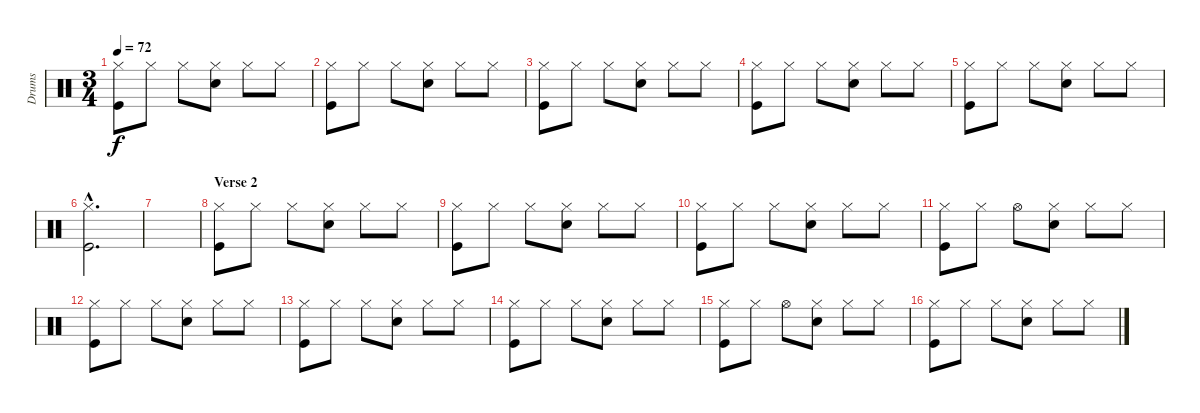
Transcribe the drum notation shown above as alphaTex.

\track ("Drums" "Drums") {instrument percussion}
\staff {score}
\articulation defaults
\ts (3 4)
\tempo 72
\clef neutral
\ks c
("Hi-Hat (closed)" "Kick (hit)").8{dy f} "Hi-Hat (closed)".8 "Hi-Hat (closed)".8 ("Hi-Hat (closed)" "Snare (hit) 2").8 "Hi-Hat (closed)".8 "Hi-Hat (closed)".8 |
("Hi-Hat (closed)" "Kick (hit)").8 "Hi-Hat (closed)".8 "Hi-Hat (closed)".8 ("Hi-Hat (closed)" "Snare (hit) 2").8 "Hi-Hat (closed)".8 "Hi-Hat (closed)".8 |
("Hi-Hat (closed)" "Kick (hit)").8 "Hi-Hat (closed)".8 "Hi-Hat (closed)".8 ("Hi-Hat (closed)" "Snare (hit) 2").8 "Hi-Hat (closed)".8 "Hi-Hat (closed)".8 |
("Hi-Hat (closed)" "Kick (hit)").8 "Hi-Hat (closed)".8 "Hi-Hat (closed)".8 ("Hi-Hat (closed)" "Snare (hit) 2").8 "Hi-Hat (closed)".8 "Hi-Hat (closed)".8 |
("Hi-Hat (closed)" "Kick (hit)").8 "Hi-Hat (closed)".8 "Hi-Hat (closed)".8 ("Hi-Hat (closed)" "Snare (hit) 2").8 "Hi-Hat (closed)".8 "Hi-Hat (closed)".8 |
("Hi-Hat (closed)"{hac} "Kick (hit)"{hac}).2{d} |
|
\section ("" "Verse 2")
("Hi-Hat (closed)" "Kick (hit)").8 "Hi-Hat (closed)".8 "Hi-Hat (closed)".8 ("Hi-Hat (closed)" "Snare (hit) 2").8 "Hi-Hat (closed)".8 "Hi-Hat (closed)".8 |
("Hi-Hat (closed)" "Kick (hit)").8 "Hi-Hat (closed)".8 "Hi-Hat (closed)".8 ("Hi-Hat (closed)" "Snare (hit) 2").8 "Hi-Hat (closed)".8 "Hi-Hat (closed)".8 |
("Hi-Hat (closed)" "Kick (hit)").8 "Hi-Hat (closed)".8 "Hi-Hat (closed)".8 ("Hi-Hat (closed)" "Snare (hit) 2").8 "Hi-Hat (closed)".8 "Hi-Hat (closed)".8 |
("Hi-Hat (closed)" "Kick (hit)").8 "Hi-Hat (closed)".8 "Hi-Hat (open)".8 ("Hi-Hat (closed)" "Snare (hit) 2").8 "Hi-Hat (closed)".8 "Hi-Hat (closed)".8 |
("Hi-Hat (closed)" "Kick (hit)").8 "Hi-Hat (closed)".8 "Hi-Hat (closed)".8 ("Hi-Hat (closed)" "Snare (hit) 2").8 "Hi-Hat (closed)".8 "Hi-Hat (closed)".8 |
("Hi-Hat (closed)" "Kick (hit)").8 "Hi-Hat (closed)".8 "Hi-Hat (closed)".8 ("Hi-Hat (closed)" "Snare (hit) 2").8 "Hi-Hat (closed)".8 "Hi-Hat (closed)".8 |
("Hi-Hat (closed)" "Kick (hit)").8 "Hi-Hat (closed)".8 "Hi-Hat (closed)".8 ("Hi-Hat (closed)" "Snare (hit) 2").8 "Hi-Hat (closed)".8 "Hi-Hat (closed)".8 |
("Hi-Hat (closed)" "Kick (hit)").8 "Hi-Hat (closed)".8 "Hi-Hat (open)".8 ("Hi-Hat (closed)" "Snare (hit) 2").8 "Hi-Hat (closed)".8 "Hi-Hat (closed)".8 |
("Hi-Hat (closed)" "Kick (hit)").8 "Hi-Hat (closed)".8 "Hi-Hat (closed)".8 ("Hi-Hat (closed)" "Snare (hit) 2").8 "Hi-Hat (closed)".8 "Hi-Hat (closed)".8
